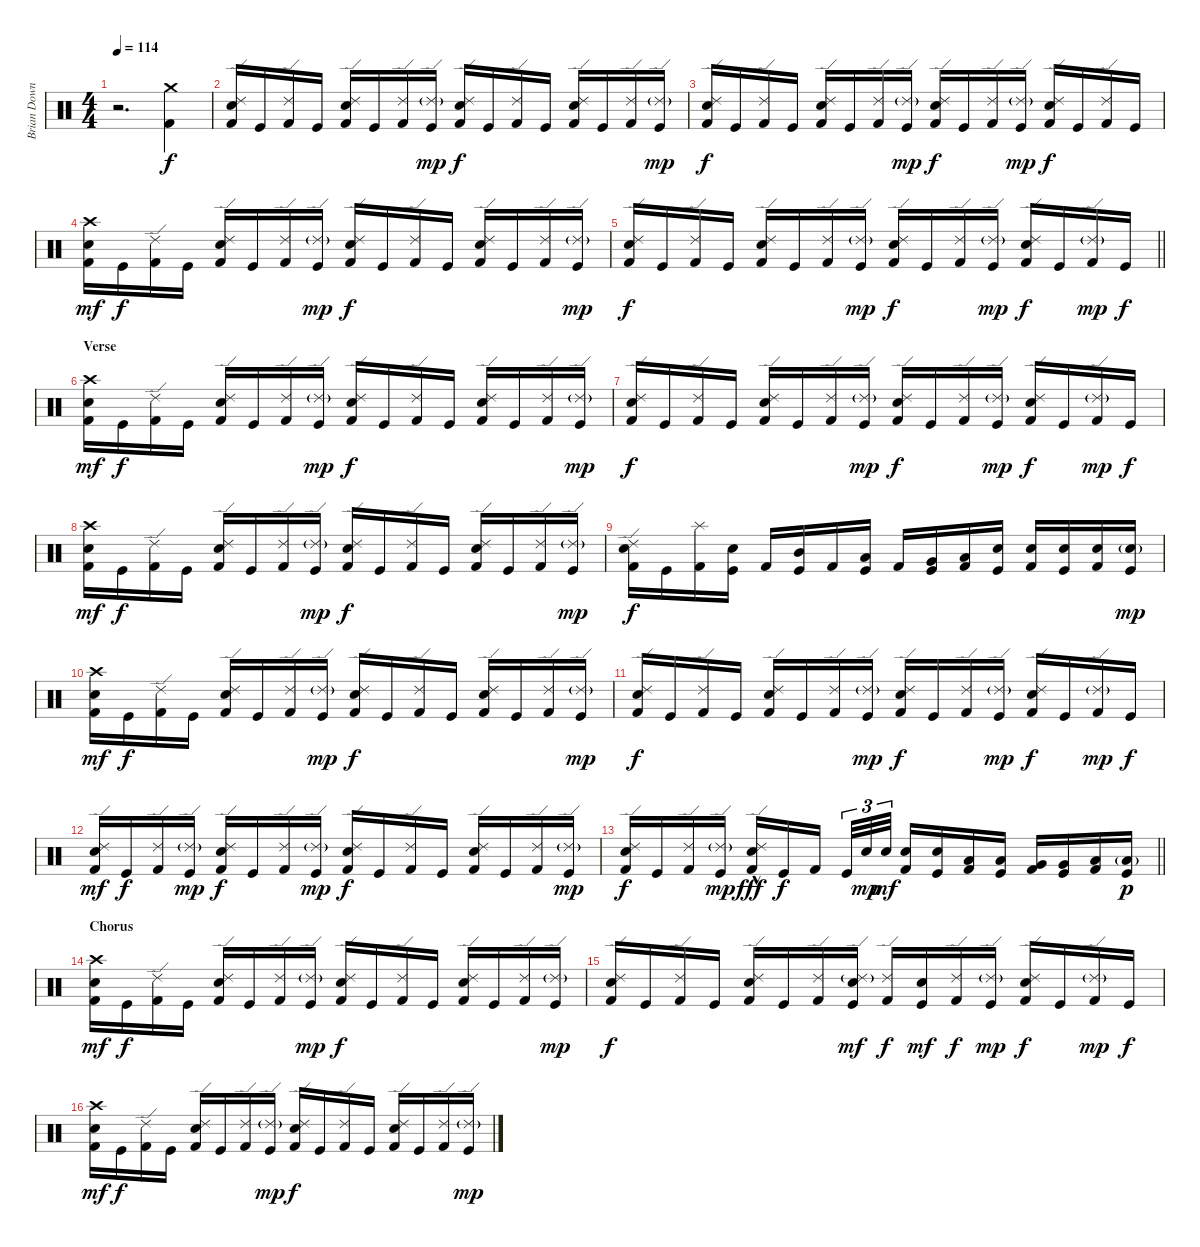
\track ("Brian Downey" "Brian Down") {instrument percussion}
\staff {score}
\articulation defaults
\ts (4 4)
\tempo 114
\clef neutral
\ks c
r.2{d dy f} ("Crash medium (hit)" "Kick (hit) 2").4 |
("Ride (edge) 2" "Electric Snare (hit)" "Kick (hit) 2").16 "Kick (hit)".16 ("Ride (edge) 2" "Kick (hit) 2").16 "Kick (hit)".16 ("Ride (edge) 2" "Electric Snare (hit)" "Kick (hit) 2").16 "Kick (hit)".16 ("Ride (edge) 2" "Kick (hit) 2").16 ("Ride (edge) 2"{g} "Kick (hit)").16{dy mp} ("Ride (edge) 2" "Electric Snare (hit)" "Kick (hit) 2").16{dy f} "Kick (hit)".16 ("Ride (edge) 2" "Kick (hit) 2").16 "Kick (hit)".16 ("Ride (edge) 2" "Electric Snare (hit)" "Kick (hit) 2").16 "Kick (hit)".16 ("Ride (edge) 2" "Kick (hit) 2").16 ("Ride (edge) 2"{g} "Kick (hit)").16{dy mp} |
("Ride (edge) 2" "Electric Snare (hit)" "Kick (hit) 2").16{dy f} "Kick (hit)".16 ("Ride (edge) 2" "Kick (hit) 2").16 "Kick (hit)".16 ("Ride (edge) 2" "Electric Snare (hit)" "Kick (hit) 2").16 "Kick (hit)".16 ("Ride (edge) 2" "Kick (hit) 2").16 ("Ride (edge) 2"{g} "Kick (hit)").16{dy mp} ("Ride (edge) 2" "Electric Snare (hit)" "Kick (hit) 2").16{dy f} "Kick (hit)".16 ("Ride (edge) 2" "Kick (hit) 2").16 ("Ride (edge) 2"{g} "Kick (hit)").16{dy mp} ("Ride (edge) 2" "Electric Snare (hit)" "Kick (hit) 2").16{dy f} "Kick (hit)".16 ("Ride (edge) 2" "Kick (hit) 2").16 "Kick (hit)".16 |
("Crash high (hit)" "Electric Snare (hit)" "Kick (hit) 2").16{dy mf} "Kick (hit)".16{dy f} ("Ride (edge) 2" "Kick (hit) 2").16 "Kick (hit)".16 ("Ride (edge) 2" "Electric Snare (hit)" "Kick (hit) 2").16 "Kick (hit)".16 ("Ride (edge) 2" "Kick (hit) 2").16 ("Ride (edge) 2"{g} "Kick (hit)").16{dy mp} ("Ride (edge) 2" "Electric Snare (hit)" "Kick (hit) 2").16{dy f} "Kick (hit)".16 ("Ride (edge) 2" "Kick (hit) 2").16 "Kick (hit)".16 ("Ride (edge) 2" "Electric Snare (hit)" "Kick (hit) 2").16 "Kick (hit)".16 ("Ride (edge) 2" "Kick (hit) 2").16 ("Ride (edge) 2"{g} "Kick (hit)").16{dy mp} |
\barLineRight lightlight
("Ride (edge) 2" "Electric Snare (hit)" "Kick (hit) 2").16{dy f} "Kick (hit)".16 ("Ride (edge) 2" "Kick (hit) 2").16 "Kick (hit)".16 ("Ride (edge) 2" "Electric Snare (hit)" "Kick (hit) 2").16 "Kick (hit)".16 ("Ride (edge) 2" "Kick (hit) 2").16 ("Ride (edge) 2"{g} "Kick (hit)").16{dy mp} ("Ride (edge) 2" "Electric Snare (hit)" "Kick (hit) 2").16{dy f} "Kick (hit)".16 ("Ride (edge) 2" "Kick (hit) 2").16 ("Ride (edge) 2"{g} "Kick (hit)").16{dy mp} ("Ride (edge) 2" "Electric Snare (hit)" "Kick (hit) 2").16{dy f} "Kick (hit)".16 ("Ride (edge) 2"{g} "Kick (hit) 2").16{dy mp} "Kick (hit)".16{dy f} |
\section ("" "Verse")
("Crash high (hit)" "Electric Snare (hit)" "Kick (hit) 2").16{dy mf} "Kick (hit)".16{dy f} ("Ride (edge) 2" "Kick (hit) 2").16 "Kick (hit)".16 ("Ride (edge) 2" "Electric Snare (hit)" "Kick (hit) 2").16 "Kick (hit)".16 ("Ride (edge) 2" "Kick (hit) 2").16 ("Ride (edge) 2"{g} "Kick (hit)").16{dy mp} ("Ride (edge) 2" "Electric Snare (hit)" "Kick (hit) 2").16{dy f} "Kick (hit)".16 ("Ride (edge) 2" "Kick (hit) 2").16 "Kick (hit)".16 ("Ride (edge) 2" "Electric Snare (hit)" "Kick (hit) 2").16 "Kick (hit)".16 ("Ride (edge) 2" "Kick (hit) 2").16 ("Ride (edge) 2"{g} "Kick (hit)").16{dy mp} |
("Ride (edge) 2" "Electric Snare (hit)" "Kick (hit) 2").16{dy f} "Kick (hit)".16 ("Ride (edge) 2" "Kick (hit) 2").16 "Kick (hit)".16 ("Ride (edge) 2" "Electric Snare (hit)" "Kick (hit) 2").16 "Kick (hit)".16 ("Ride (edge) 2" "Kick (hit) 2").16 ("Ride (edge) 2"{g} "Kick (hit)").16{dy mp} ("Ride (edge) 2" "Electric Snare (hit)" "Kick (hit) 2").16{dy f} "Kick (hit)".16 ("Ride (edge) 2" "Kick (hit) 2").16 ("Ride (edge) 2"{g} "Kick (hit)").16{dy mp} ("Ride (edge) 2" "Electric Snare (hit)" "Kick (hit) 2").16{dy f} "Kick (hit)".16 ("Ride (edge) 2"{g} "Kick (hit) 2").16{dy mp} "Kick (hit)".16{dy f} |
("Crash high (hit)" "Electric Snare (hit)" "Kick (hit) 2").16{dy mf} "Kick (hit)".16{dy f} ("Ride (edge) 2" "Kick (hit) 2").16 "Kick (hit)".16 ("Ride (edge) 2" "Electric Snare (hit)" "Kick (hit) 2").16 "Kick (hit)".16 ("Ride (edge) 2" "Kick (hit) 2").16 ("Ride (edge) 2"{g} "Kick (hit)").16{dy mp} ("Ride (edge) 2" "Electric Snare (hit)" "Kick (hit) 2").16{dy f} "Kick (hit)".16 ("Ride (edge) 2" "Kick (hit) 2").16 "Kick (hit)".16 ("Ride (edge) 2" "Electric Snare (hit)" "Kick (hit) 2").16 "Kick (hit)".16 ("Ride (edge) 2" "Kick (hit) 2").16 ("Ride (edge) 2"{g} "Kick (hit)").16{dy mp} |
("Ride (edge) 2" "Electric Snare (hit)" "Kick (hit) 2").16{dy f} "Kick (hit)".16 ("Splash (hit)" "Kick (hit) 2").16 ("Electric Snare (hit)" "Kick (hit)").16 "Kick (hit) 2".16 ("Mid Tom (hit)" "Kick (hit)").16 "Kick (hit) 2".16 ("Low Tom (hit)" "Kick (hit)").16 "Kick (hit) 2".16 ("Very Low Tom (hit)" "Kick (hit)").16 ("Low Floor Tom (hit)" "Kick (hit) 2").16 ("Electric Snare (hit)" "Kick (hit)").16 ("Electric Snare (hit)" "Kick (hit) 2").16 ("Electric Snare (hit)" "Kick (hit)").16 ("Electric Snare (hit)" "Kick (hit) 2").16 ("Electric Snare (hit)"{g} "Kick (hit)").16{dy mp} |
("Crash high (hit)" "Electric Snare (hit)" "Kick (hit) 2").16{dy mf} "Kick (hit)".16{dy f} ("Ride (edge) 2" "Kick (hit) 2").16 "Kick (hit)".16 ("Ride (edge) 2" "Electric Snare (hit)" "Kick (hit) 2").16 "Kick (hit)".16 ("Ride (edge) 2" "Kick (hit) 2").16 ("Ride (edge) 2"{g} "Kick (hit)").16{dy mp} ("Ride (edge) 2" "Electric Snare (hit)" "Kick (hit) 2").16{dy f} "Kick (hit)".16 ("Ride (edge) 2" "Kick (hit) 2").16 "Kick (hit)".16 ("Ride (edge) 2" "Electric Snare (hit)" "Kick (hit) 2").16 "Kick (hit)".16 ("Ride (edge) 2" "Kick (hit) 2").16 ("Ride (edge) 2"{g} "Kick (hit)").16{dy mp} |
("Ride (edge) 2" "Electric Snare (hit)" "Kick (hit) 2").16{dy f} "Kick (hit)".16 ("Ride (edge) 2" "Kick (hit) 2").16 "Kick (hit)".16 ("Ride (edge) 2" "Electric Snare (hit)" "Kick (hit) 2").16 "Kick (hit)".16 ("Ride (edge) 2" "Kick (hit) 2").16 ("Ride (edge) 2"{g} "Kick (hit)").16{dy mp} ("Ride (edge) 2" "Electric Snare (hit)" "Kick (hit) 2").16{dy f} "Kick (hit)".16 ("Ride (edge) 2" "Kick (hit) 2").16 ("Ride (edge) 2"{g} "Kick (hit)").16{dy mp} ("Ride (edge) 2" "Electric Snare (hit)" "Kick (hit) 2").16{dy f} "Kick (hit)".16 ("Ride (edge) 2"{g} "Kick (hit) 2").16{dy mp} "Kick (hit)".16{dy f} |
("Ride (edge) 2" "Electric Snare (hit)" "Kick (hit) 2").16{dy mf} "Kick (hit)".16{dy f} ("Ride (edge) 2" "Kick (hit) 2").16 ("Ride (edge) 2"{g} "Kick (hit)").16{dy mp} ("Ride (edge) 2" "Electric Snare (hit)" "Kick (hit) 2").16{dy f} "Kick (hit)".16 ("Ride (edge) 2" "Kick (hit) 2").16 ("Ride (edge) 2"{g} "Kick (hit)").16{dy mp} ("Ride (edge) 2" "Electric Snare (hit)" "Kick (hit) 2").16{dy f} "Kick (hit)".16 ("Ride (edge) 2" "Kick (hit) 2").16 "Kick (hit)".16 ("Ride (edge) 2" "Electric Snare (hit)" "Kick (hit) 2").16 "Kick (hit)".16 ("Ride (edge) 2" "Kick (hit) 2").16 ("Ride (edge) 2"{g} "Kick (hit)").16{dy mp} |
\barLineRight lightlight
("Ride (edge) 2" "Electric Snare (hit)" "Kick (hit) 2").16{dy f} "Kick (hit)".16 ("Ride (edge) 2" "Kick (hit) 2").16 ("Ride (edge) 2"{g} "Kick (hit)").16{dy mp} ("Ride (edge) 2"{hac} "Electric Snare (hit)" "Kick (hit) 2").16{dy fff} "Kick (hit)".16{dy f} "Kick (hit) 2".16{beam splitsecondary} "Kick (hit)".32{tu (3 2)} "Electric Snare (hit)".32{tu (3 2) dy mp} "Electric Snare (hit)".32{tu (3 2) dy mf} ("Electric Snare (hit)" "Kick (hit) 2").16 ("Electric Snare (hit)" "Kick (hit)").16 ("Low Tom (hit)" "Kick (hit) 2").16 ("Low Tom (hit)" "Kick (hit)").16 ("Very Low Tom (hit)" "Kick (hit) 2").16 ("Very Low Tom (hit)" "Kick (hit)").16 ("Low Floor Tom (hit)" "Kick (hit) 2").16 ("Low Floor Tom (hit)"{g} "Kick (hit)").16{dy p} |
\section ("" "Chorus")
("Crash high (hit)" "Electric Snare (hit)" "Kick (hit) 2").16{dy mf} "Kick (hit)".16{dy f} ("Ride (edge) 2" "Kick (hit) 2").16 "Kick (hit)".16 ("Ride (edge) 2" "Electric Snare (hit)" "Kick (hit) 2").16 "Kick (hit)".16 ("Ride (edge) 2" "Kick (hit) 2").16 ("Ride (edge) 2"{g} "Kick (hit)").16{dy mp} ("Ride (edge) 2" "Electric Snare (hit)" "Kick (hit) 2").16{dy f} "Kick (hit)".16 ("Ride (edge) 2" "Kick (hit) 2").16 "Kick (hit)".16 ("Ride (edge) 2" "Electric Snare (hit)" "Kick (hit) 2").16 "Kick (hit)".16 ("Ride (edge) 2" "Kick (hit) 2").16 ("Ride (edge) 2"{g} "Kick (hit)").16{dy mp} |
("Ride (edge) 2" "Electric Snare (hit)" "Kick (hit) 2").16{dy f} "Kick (hit)".16 ("Ride (edge) 2" "Kick (hit) 2").16 "Kick (hit)".16 ("Ride (edge) 2" "Electric Snare (hit)" "Kick (hit) 2").16 "Kick (hit)".16 ("Ride (edge) 2" "Kick (hit) 2").16 ("Ride (edge) 2"{g} "Electric Snare (hit)" "Kick (hit)").16{dy mf} ("Ride (edge) 2" "Kick (hit) 2").16{dy f} ("Electric Snare (hit)" "Kick (hit)").16{dy mf} ("Ride (edge) 2" "Kick (hit) 2").16{dy f} ("Ride (edge) 2"{g} "Kick (hit)").16{dy mp} ("Ride (edge) 2" "Electric Snare (hit)" "Kick (hit) 2").16{dy f} "Kick (hit)".16 ("Ride (edge) 2"{g} "Kick (hit) 2").16{dy mp} "Kick (hit)".16{dy f} |
("Crash high (hit)" "Electric Snare (hit)" "Kick (hit) 2").16{dy mf} "Kick (hit)".16{dy f} ("Ride (edge) 2" "Kick (hit) 2").16 "Kick (hit)".16 ("Ride (edge) 2" "Electric Snare (hit)" "Kick (hit) 2").16 "Kick (hit)".16 ("Ride (edge) 2" "Kick (hit) 2").16 ("Ride (edge) 2"{g} "Kick (hit)").16{dy mp} ("Ride (edge) 2" "Electric Snare (hit)" "Kick (hit) 2").16{dy f} "Kick (hit)".16 ("Ride (edge) 2" "Kick (hit) 2").16 "Kick (hit)".16 ("Ride (edge) 2" "Electric Snare (hit)" "Kick (hit) 2").16 "Kick (hit)".16 ("Ride (edge) 2" "Kick (hit) 2").16 ("Ride (edge) 2"{g} "Kick (hit)").16{dy mp}
